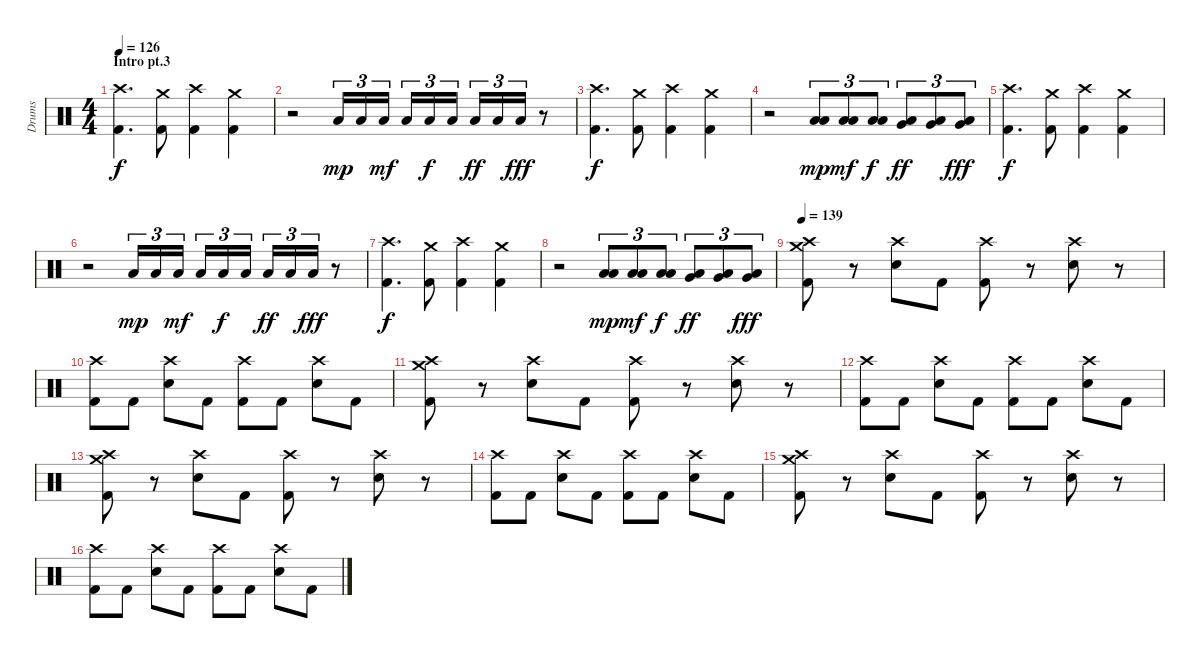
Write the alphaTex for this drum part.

\track ("Drums" "Drums") {instrument percussion}
\staff {score}
\articulation defaults
\ts (4 4)
\section ("" "Intro pt.3")
\tempo 126
\clef neutral
\ks c
("Crash high (hit)" "Kick (hit) 2").4{d dy f} ("Crash medium (hit)" "Kick (hit) 2").8 ("Crash high (hit)" "Kick (hit) 2").4 ("Crash medium (hit)" "Kick (hit) 2").4 |
r.2 "Low Floor Tom (hit)".16{tu (3 2) dy mp} "Low Floor Tom (hit)".16{tu (3 2)} "Low Floor Tom (hit)".16{tu (3 2) dy mf beam splitsecondary} "Low Floor Tom (hit)".16{tu (3 2)} "Low Floor Tom (hit)".16{tu (3 2) dy f} "Low Floor Tom (hit)".16{tu (3 2)} "Low Floor Tom (hit)".16{tu (3 2) dy ff} "Low Floor Tom (hit)".16{tu (3 2)} "Low Floor Tom (hit)".16{tu (3 2) dy fff} r.8 |
("Crash high (hit)" "Kick (hit) 2").4{d dy f} ("Crash medium (hit)" "Kick (hit) 2").8 ("Crash high (hit)" "Kick (hit) 2").4 ("Crash medium (hit)" "Kick (hit) 2").4 |
r.2 ("Low Tom (hit)" "Low Floor Tom (hit)").8{tu (3 2) dy mp} ("Low Tom (hit)" "Low Floor Tom (hit)").8{tu (3 2) dy mf} ("Low Tom (hit)" "Low Floor Tom (hit)").8{tu (3 2) dy f} ("Very Low Tom (hit)" "Low Floor Tom (hit)").8{tu (3 2) dy ff} ("Very Low Tom (hit)" "Low Floor Tom (hit)").8{tu (3 2)} ("Very Low Tom (hit)" "Low Floor Tom (hit)").8{tu (3 2) dy fff} |
("Crash high (hit)" "Kick (hit) 2").4{d dy f} ("Crash medium (hit)" "Kick (hit) 2").8 ("Crash high (hit)" "Kick (hit) 2").4 ("Crash medium (hit)" "Kick (hit) 2").4 |
r.2 "Low Floor Tom (hit)".16{tu (3 2) dy mp} "Low Floor Tom (hit)".16{tu (3 2)} "Low Floor Tom (hit)".16{tu (3 2) dy mf beam splitsecondary} "Low Floor Tom (hit)".16{tu (3 2)} "Low Floor Tom (hit)".16{tu (3 2) dy f} "Low Floor Tom (hit)".16{tu (3 2)} "Low Floor Tom (hit)".16{tu (3 2) dy ff} "Low Floor Tom (hit)".16{tu (3 2)} "Low Floor Tom (hit)".16{tu (3 2) dy fff} r.8 |
("Crash high (hit)" "Kick (hit) 2").4{d dy f} ("Crash medium (hit)" "Kick (hit) 2").8 ("Crash high (hit)" "Kick (hit) 2").4 ("Crash medium (hit)" "Kick (hit) 2").4 |
r.2 ("Low Tom (hit)" "Low Floor Tom (hit)").8{tu (3 2) dy mp} ("Low Tom (hit)" "Low Floor Tom (hit)").8{tu (3 2) dy mf} ("Low Tom (hit)" "Low Floor Tom (hit)").8{tu (3 2) dy f} ("Very Low Tom (hit)" "Low Floor Tom (hit)").8{tu (3 2) dy ff} ("Very Low Tom (hit)" "Low Floor Tom (hit)").8{tu (3 2)} ("Very Low Tom (hit)" "Low Floor Tom (hit)").8{tu (3 2) dy fff} |
\tempo 139
("Crash high (hit)" "Crash medium (hit)" "Kick (hit) 2").8 r.8 ("Crash high (hit)" "Snare (hit) 2").8 "Kick (hit) 2".8 ("Crash high (hit)" "Kick (hit) 2").8 r.8 ("Crash high (hit)" "Snare (hit) 2").8 r.8 |
("Crash high (hit)" "Kick (hit) 2").8 "Kick (hit) 2".8 ("Crash high (hit)" "Snare (hit) 2").8 "Kick (hit) 2".8 ("Crash high (hit)" "Kick (hit) 2").8 "Kick (hit) 2".8 ("Crash high (hit)" "Snare (hit) 2").8 "Kick (hit) 2".8 |
("Crash high (hit)" "Crash medium (hit)" "Kick (hit) 2").8 r.8 ("Crash high (hit)" "Snare (hit) 2").8 "Kick (hit) 2".8 ("Crash high (hit)" "Kick (hit) 2").8 r.8 ("Crash high (hit)" "Snare (hit) 2").8 r.8 |
("Crash high (hit)" "Kick (hit) 2").8 "Kick (hit) 2".8 ("Crash high (hit)" "Snare (hit) 2").8 "Kick (hit) 2".8 ("Crash high (hit)" "Kick (hit) 2").8 "Kick (hit) 2".8 ("Crash high (hit)" "Snare (hit) 2").8 "Kick (hit) 2".8 |
("Crash high (hit)" "Crash medium (hit)" "Kick (hit) 2").8 r.8 ("Crash high (hit)" "Snare (hit) 2").8 "Kick (hit) 2".8 ("Crash high (hit)" "Kick (hit) 2").8 r.8 ("Crash high (hit)" "Snare (hit) 2").8 r.8 |
("Crash high (hit)" "Kick (hit) 2").8 "Kick (hit) 2".8 ("Crash high (hit)" "Snare (hit) 2").8 "Kick (hit) 2".8 ("Crash high (hit)" "Kick (hit) 2").8 "Kick (hit) 2".8 ("Crash high (hit)" "Snare (hit) 2").8 "Kick (hit) 2".8 |
("Crash high (hit)" "Crash medium (hit)" "Kick (hit) 2").8 r.8 ("Crash high (hit)" "Snare (hit) 2").8 "Kick (hit) 2".8 ("Crash high (hit)" "Kick (hit) 2").8 r.8 ("Crash high (hit)" "Snare (hit) 2").8 r.8 |
("Crash high (hit)" "Kick (hit) 2").8 "Kick (hit) 2".8 ("Crash high (hit)" "Snare (hit) 2").8 "Kick (hit) 2".8 ("Crash high (hit)" "Kick (hit) 2").8 "Kick (hit) 2".8 ("Crash high (hit)" "Snare (hit) 2").8 "Kick (hit) 2".8
